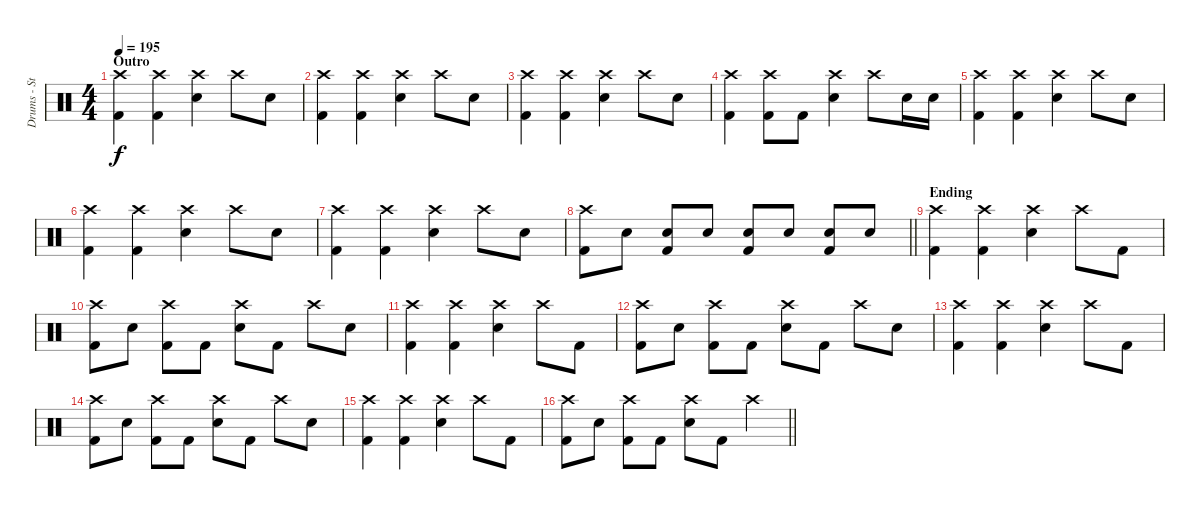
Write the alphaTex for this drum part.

\track ("Drums - Steve" "Drums - St") {instrument percussion}
\staff {score}
\articulation defaults
\ts (4 4)
\section ("" "Outro")
\tempo 195
\clef neutral
\ks c
("Crash high (hit)" "Kick (hit) 2").4{dy f} ("Crash high (hit)" "Kick (hit) 2").4 ("Crash high (hit)" "Snare (hit) 2").4 "Crash high (hit)".8 "Snare (hit) 2".8 |
("Crash high (hit)" "Kick (hit) 2").4 ("Crash high (hit)" "Kick (hit) 2").4 ("Crash high (hit)" "Snare (hit) 2").4 "Crash high (hit)".8 "Snare (hit) 2".8 |
("Crash high (hit)" "Kick (hit) 2").4 ("Crash high (hit)" "Kick (hit) 2").4 ("Crash high (hit)" "Snare (hit) 2").4 "Crash high (hit)".8 "Snare (hit) 2".8 |
("Crash high (hit)" "Kick (hit) 2").4 ("Crash high (hit)" "Kick (hit) 2").8 "Kick (hit) 2".8 ("Crash high (hit)" "Snare (hit) 2").4 "Crash high (hit)".8 "Snare (hit) 2".16 "Snare (hit) 2".16 |
("Crash high (hit)" "Kick (hit) 2").4 ("Crash high (hit)" "Kick (hit) 2").4 ("Crash high (hit)" "Snare (hit) 2").4 "Crash high (hit)".8 "Snare (hit) 2".8 |
("Crash high (hit)" "Kick (hit) 2").4 ("Crash high (hit)" "Kick (hit) 2").4 ("Crash high (hit)" "Snare (hit) 2").4 "Crash high (hit)".8 "Snare (hit) 2".8 |
("Crash high (hit)" "Kick (hit) 2").4 ("Crash high (hit)" "Kick (hit) 2").4 ("Crash high (hit)" "Snare (hit) 2").4 "Crash high (hit)".8 "Snare (hit) 2".8 |
\barLineRight lightlight
("Crash high (hit)" "Kick (hit) 2").8 "Snare (hit) 2".8 ("Snare (hit) 2" "Kick (hit) 2").8 "Snare (hit) 2".8 ("Snare (hit) 2" "Kick (hit) 2").8 "Snare (hit) 2".8 ("Snare (hit) 2" "Kick (hit) 2").8 "Snare (hit) 2".8 |
\section ("" "Ending")
("Crash high (hit)" "Kick (hit) 2").4 ("Crash high (hit)" "Kick (hit) 2").4 ("Crash high (hit)" "Snare (hit) 2").4 "Crash high (hit)".8 "Kick (hit) 2".8 |
("Crash high (hit)" "Kick (hit) 2").8 "Snare (hit) 2".8 ("Crash high (hit)" "Kick (hit) 2").8 "Kick (hit) 2".8 ("Crash high (hit)" "Snare (hit) 2").8 "Kick (hit) 2".8 "Crash high (hit)".8 "Snare (hit) 2".8 |
("Crash high (hit)" "Kick (hit) 2").4 ("Crash high (hit)" "Kick (hit) 2").4 ("Crash high (hit)" "Snare (hit) 2").4 "Crash high (hit)".8 "Kick (hit) 2".8 |
("Crash high (hit)" "Kick (hit) 2").8 "Snare (hit) 2".8 ("Crash high (hit)" "Kick (hit) 2").8 "Kick (hit) 2".8 ("Crash high (hit)" "Snare (hit) 2").8 "Kick (hit) 2".8 "Crash high (hit)".8 "Snare (hit) 2".8 |
("Crash high (hit)" "Kick (hit) 2").4 ("Crash high (hit)" "Kick (hit) 2").4 ("Crash high (hit)" "Snare (hit) 2").4 "Crash high (hit)".8 "Kick (hit) 2".8 |
("Crash high (hit)" "Kick (hit) 2").8 "Snare (hit) 2".8 ("Crash high (hit)" "Kick (hit) 2").8 "Kick (hit) 2".8 ("Crash high (hit)" "Snare (hit) 2").8 "Kick (hit) 2".8 "Crash high (hit)".8 "Snare (hit) 2".8 |
("Crash high (hit)" "Kick (hit) 2").4 ("Crash high (hit)" "Kick (hit) 2").4 ("Crash high (hit)" "Snare (hit) 2").4 "Crash high (hit)".8 "Kick (hit) 2".8 |
\barLineRight lightlight
("Crash high (hit)" "Kick (hit) 2").8 "Snare (hit) 2".8 ("Crash high (hit)" "Kick (hit) 2").8 "Kick (hit) 2".8 ("Crash high (hit)" "Snare (hit) 2").8 "Kick (hit) 2".8 "Crash high (hit)".4
